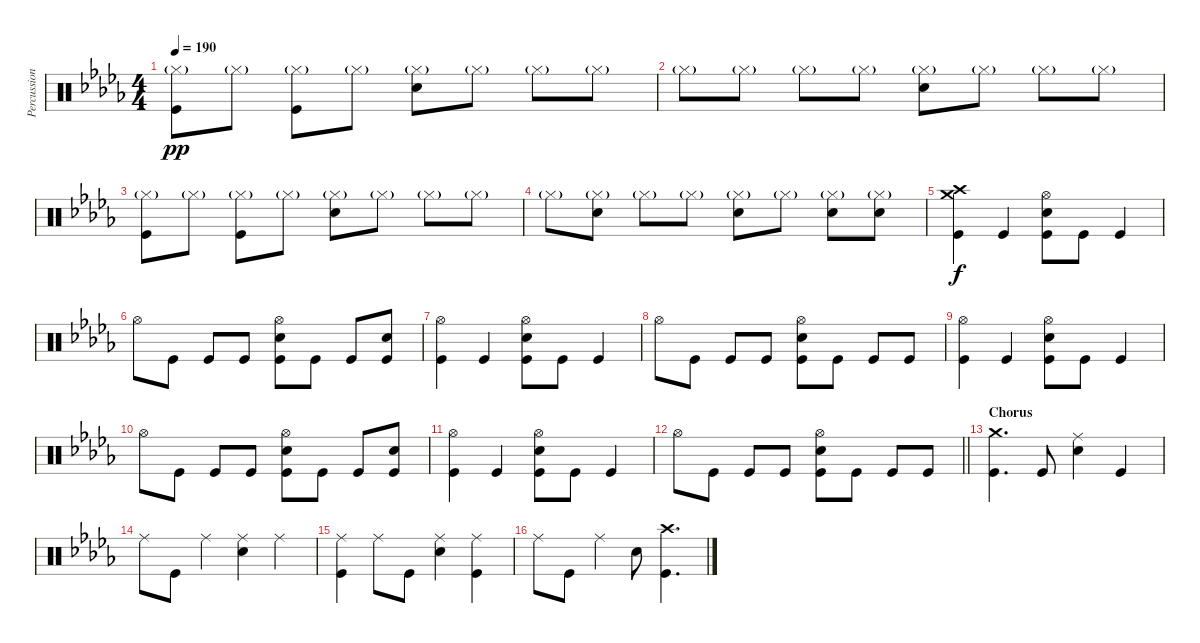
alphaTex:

\track ("Percussion" "Percussion") {instrument percussion}
\staff {score}
\articulation defaults
\ts (4 4)
\tempo 190
\clef neutral
\ks db
("Hi-Hat (closed)"{g} "Kick (hit)").8{dy pp} "Hi-Hat (closed)"{g}.8 ("Hi-Hat (closed)"{g} "Kick (hit)").8 "Hi-Hat (closed)"{g}.8 ("Hi-Hat (closed)"{g} "Electric Snare (hit)").8 "Hi-Hat (closed)"{g}.8 "Hi-Hat (closed)"{g}.8 "Hi-Hat (closed)"{g}.8 |
"Hi-Hat (closed)"{g}.8 "Hi-Hat (closed)"{g}.8 "Hi-Hat (closed)"{g}.8 "Hi-Hat (closed)"{g}.8 ("Hi-Hat (closed)"{g} "Electric Snare (hit)").8 "Hi-Hat (closed)"{g}.8 "Hi-Hat (closed)"{g}.8 "Hi-Hat (closed)"{g}.8 |
("Hi-Hat (closed)"{g} "Kick (hit)").8 "Hi-Hat (closed)"{g}.8 ("Hi-Hat (closed)"{g} "Kick (hit)").8 "Hi-Hat (closed)"{g}.8 ("Hi-Hat (closed)"{g} "Electric Snare (hit)").8 "Hi-Hat (closed)"{g}.8 "Hi-Hat (closed)"{g}.8 "Hi-Hat (closed)"{g}.8 |
"Hi-Hat (closed)"{g}.8 ("Hi-Hat (closed)"{g} "Electric Snare (hit)").8 "Hi-Hat (closed)"{g}.8 "Hi-Hat (closed)"{g}.8 ("Hi-Hat (closed)"{g} "Electric Snare (hit)").8 "Hi-Hat (closed)"{g}.8 ("Hi-Hat (closed)"{g} "Electric Snare (hit)").8 ("Hi-Hat (closed)"{g} "Electric Snare (hit)").8 |
("Crash high (hit)" "Crash medium (hit)" "Kick (hit)").4{dy f} "Kick (hit)".4 ("Hi-Hat (open)" "Electric Snare (hit)" "Kick (hit)").8 "Kick (hit)".8 "Kick (hit)".4 |
"Hi-Hat (open)".8 "Kick (hit)".8 "Kick (hit)".8 "Kick (hit)".8 ("Hi-Hat (open)" "Electric Snare (hit)" "Kick (hit)").8 "Kick (hit)".8 "Kick (hit)".8 ("Electric Snare (hit)" "Kick (hit)").8 |
("Hi-Hat (open)" "Kick (hit)").4 "Kick (hit)".4 ("Hi-Hat (open)" "Electric Snare (hit)" "Kick (hit)").8 "Kick (hit)".8 "Kick (hit)".4 |
"Hi-Hat (open)".8 "Kick (hit)".8 "Kick (hit)".8 "Kick (hit)".8 ("Hi-Hat (open)" "Electric Snare (hit)" "Kick (hit)").8 "Kick (hit)".8 "Kick (hit)".8 "Kick (hit)".8 |
("Hi-Hat (open)" "Kick (hit)").4 "Kick (hit)".4 ("Hi-Hat (open)" "Electric Snare (hit)" "Kick (hit)").8 "Kick (hit)".8 "Kick (hit)".4 |
"Hi-Hat (open)".8 "Kick (hit)".8 "Kick (hit)".8 "Kick (hit)".8 ("Hi-Hat (open)" "Electric Snare (hit)" "Kick (hit)").8 "Kick (hit)".8 "Kick (hit)".8 ("Electric Snare (hit)" "Kick (hit)").8 |
("Hi-Hat (open)" "Kick (hit)").4 "Kick (hit)".4 ("Hi-Hat (open)" "Electric Snare (hit)" "Kick (hit)").8 "Kick (hit)".8 "Kick (hit)".4 |
\barLineRight lightlight "Hi-Hat (open)".8 "Kick (hit)".8 "Kick (hit)".8 "Kick (hit)".8
("Hi-Hat (open)" "Electric Snare (hit)" "Kick (hit)").8 "Kick (hit)".8 "Kick (hit)".8 "Kick (hit)".8 |
\section ("" "Chorus")
("Crash medium (hit)" "Kick (hit)").4{d} "Kick (hit)".8 ("Ride (middle)" "Electric Snare (hit)").4 "Kick (hit)".4 |
"Ride (middle)".8 "Kick (hit)".8 "Ride (middle)".4 ("Ride (middle)" "Electric Snare (hit)").4 "Ride (middle)".4 |
("Ride (middle)" "Kick (hit)").4 "Ride (middle)".8 "Kick (hit)".8 ("Ride (middle)" "Electric Snare (hit)").4 ("Ride (middle)" "Kick (hit)").4 |
"Ride (middle)".8 "Kick (hit)".8 "Ride (middle)".4 "Electric Snare (hit)".8 ("Crash high (hit)" "Kick (hit)").4{d}
